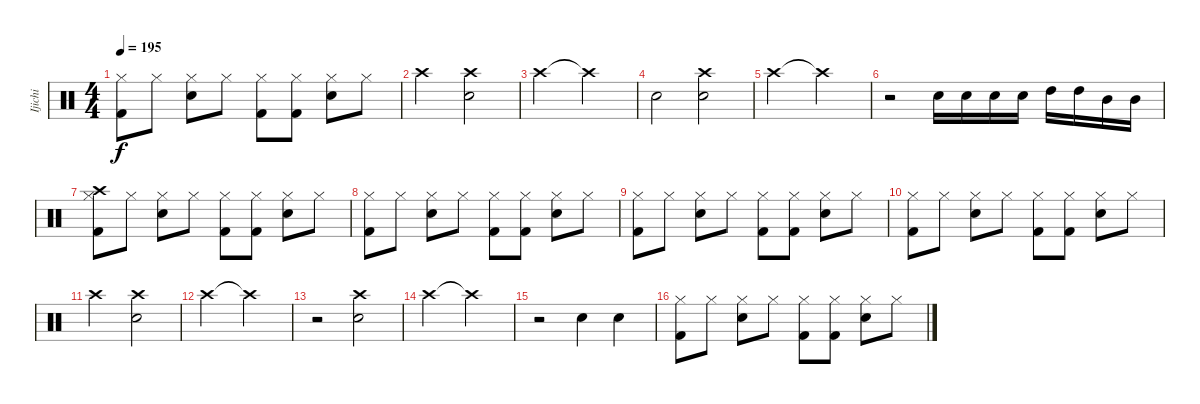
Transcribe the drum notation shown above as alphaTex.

\track ("Ijichi" "Ijichi") {instrument percussion}
\staff {score}
\articulation defaults
\ts (4 4)
\tempo 195
\clef neutral
\ks c
("Hi-Hat (closed)" "Kick (hit) 2").8{dy f} "Hi-Hat (closed)".8 ("Hi-Hat (closed)" "Snare (hit) 2").8 "Hi-Hat (closed)".8 ("Hi-Hat (closed)" "Kick (hit) 2").8 ("Hi-Hat (closed)" "Kick (hit) 2").8 ("Hi-Hat (closed)" "Snare (hit) 2").8 "Hi-Hat (closed)".8 |
"Crash high (hit)".2 ("Crash high (hit)" "Snare (hit) 2").2 |
"Crash high (hit)".2 "Crash high (hit)"{t}.2 |
"Snare (hit) 2".2 ("Crash high (hit)" "Snare (hit) 2").2 |
"Crash high (hit)".2 "Crash high (hit)"{t}.2 |
r.2 "Snare (hit) 2".16 "Snare (hit) 2".16 "Snare (hit) 2".16 "Snare (hit) 2".16 "High Tom (hit)".16 "High Tom (hit)".16 "Mid Tom (hit)".16 "Mid Tom (hit)".16 |
("Hi-Hat (closed)" "Kick (hit) 2" "Crash high (hit)").8 "Hi-Hat (closed)".8 ("Hi-Hat (closed)" "Snare (hit) 2").8 "Hi-Hat (closed)".8 ("Hi-Hat (closed)" "Kick (hit) 2").8 ("Hi-Hat (closed)" "Kick (hit) 2").8 ("Hi-Hat (closed)" "Snare (hit) 2").8 "Hi-Hat (closed)".8 |
("Hi-Hat (closed)" "Kick (hit) 2").8 "Hi-Hat (closed)".8 ("Hi-Hat (closed)" "Snare (hit) 2").8 "Hi-Hat (closed)".8 ("Hi-Hat (closed)" "Kick (hit) 2").8 ("Hi-Hat (closed)" "Kick (hit) 2").8 ("Hi-Hat (closed)" "Snare (hit) 2").8 "Hi-Hat (closed)".8 |
("Hi-Hat (closed)" "Kick (hit) 2").8 "Hi-Hat (closed)".8 ("Hi-Hat (closed)" "Snare (hit) 2").8 "Hi-Hat (closed)".8 ("Hi-Hat (closed)" "Kick (hit) 2").8 ("Hi-Hat (closed)" "Kick (hit) 2").8 ("Hi-Hat (closed)" "Snare (hit) 2").8 "Hi-Hat (closed)".8 |
("Hi-Hat (closed)" "Kick (hit) 2").8 "Hi-Hat (closed)".8 ("Hi-Hat (closed)" "Snare (hit) 2").8 "Hi-Hat (closed)".8 ("Hi-Hat (closed)" "Kick (hit) 2").8 ("Hi-Hat (closed)" "Kick (hit) 2").8 ("Hi-Hat (closed)" "Snare (hit) 2").8 "Hi-Hat (closed)".8 |
"Crash high (hit)".2 ("Crash high (hit)" "Snare (hit) 2").2 |
"Crash high (hit)".2 "Crash high (hit)"{t}.2 |
r.2 ("Crash high (hit)" "Snare (hit) 2").2 |
"Crash high (hit)".2 "Crash high (hit)"{t}.2 |
r.2 "Snare (hit) 2".4 "Snare (hit) 2".4 |
("Hi-Hat (closed)" "Kick (hit) 2").8 "Hi-Hat (closed)".8 ("Hi-Hat (closed)" "Snare (hit) 2").8 "Hi-Hat (closed)".8 ("Hi-Hat (closed)" "Kick (hit) 2").8 ("Hi-Hat (closed)" "Kick (hit) 2").8 ("Hi-Hat (closed)" "Snare (hit) 2").8 "Hi-Hat (closed)".8
